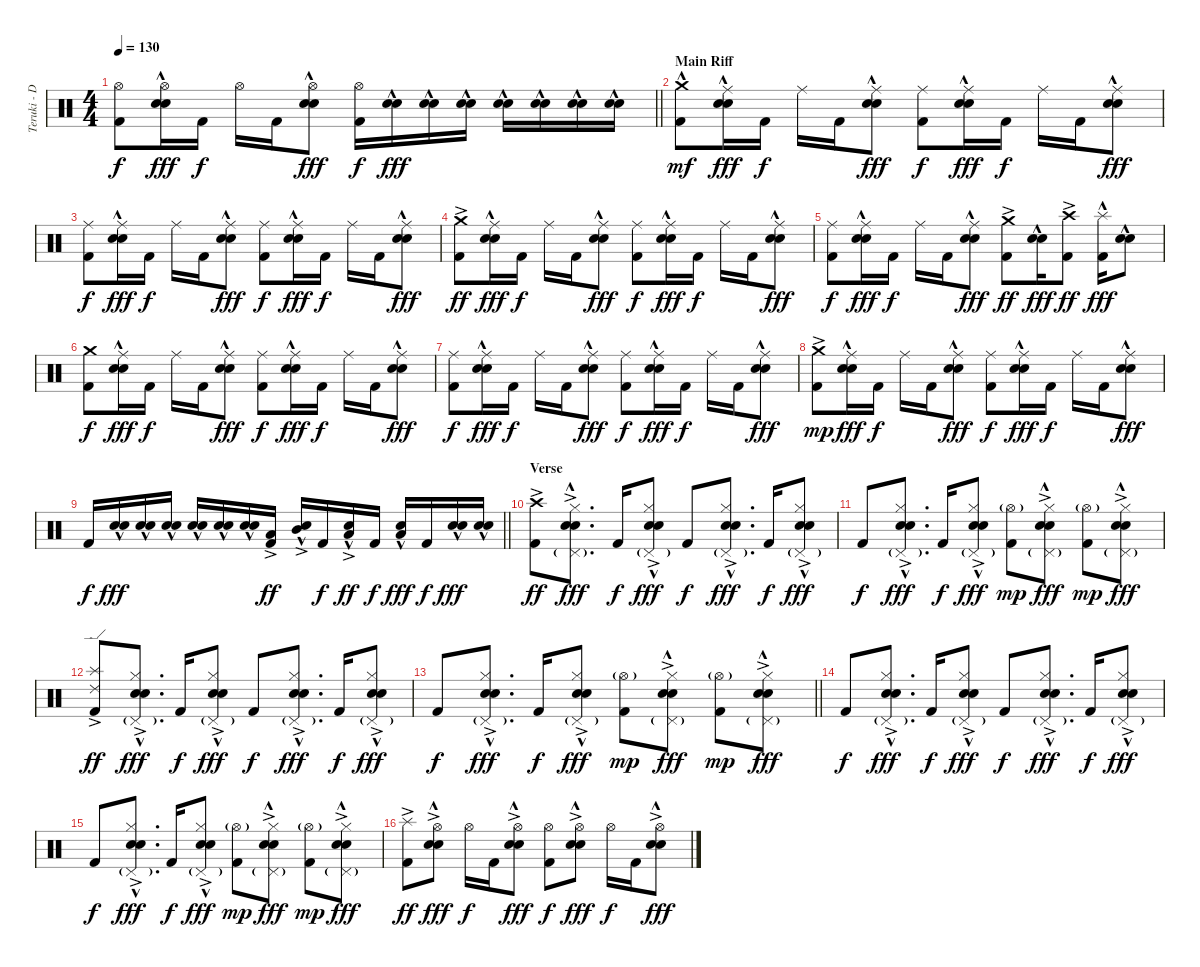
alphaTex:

\track ("Teruki - Drums" "Teruki - D") {instrument percussion}
\staff {score}
\articulation defaults
\ts (4 4)
\tempo 130
\clef neutral
\barLineRight lightlight
\ks c
("Hi-Hat (open)" "Kick (hit) 2").8{dy f} ("Hi-Hat (open)" "Electric Snare (hit)"{hac} "Snare (hit) 2").16{dy fff} "Kick (hit) 2".16{dy f} "Hi-Hat (open)".16 "Kick (hit) 2".16 ("Hi-Hat (open)" "Electric Snare (hit)"{hac} "Snare (hit) 2").8{dy fff} ("Hi-Hat (open)" "Kick (hit) 2").16{dy f} ("Electric Snare (hit)"{hac} "Snare (hit) 2").16{dy fff} ("Electric Snare (hit)"{hac} "Snare (hit) 2").16 ("Electric Snare (hit)"{hac} "Snare (hit) 2").16 ("Electric Snare (hit)"{hac} "Snare (hit) 2").16 ("Electric Snare (hit)"{hac} "Snare (hit) 2").16 ("Electric Snare (hit)"{hac} "Snare (hit) 2").16 ("Electric Snare (hit)"{hac} "Snare (hit) 2").16 |
\section ("" "Main Riff")
("Crash medium (hit)"{hac} "Kick (hit) 2").8{dy mf} ("Ride (middle)" "Electric Snare (hit)"{hac} "Snare (hit) 2").16{dy fff} "Kick (hit) 2".16{dy f} "Ride (middle)".16 "Kick (hit) 2".16 ("Ride (middle)" "Electric Snare (hit)"{hac} "Snare (hit) 2").8{dy fff} ("Ride (middle)" "Kick (hit) 2").8{dy f} ("Ride (middle)" "Electric Snare (hit)"{hac} "Snare (hit) 2").16{dy fff} "Kick (hit) 2".16{dy f} "Ride (middle)".16 "Kick (hit) 2".16 ("Ride (middle)" "Electric Snare (hit)"{hac} "Snare (hit) 2").8{dy fff} |
("Ride (middle)" "Kick (hit) 2").8{dy f} ("Ride (middle)" "Electric Snare (hit)"{hac} "Snare (hit) 2").16{dy fff} "Kick (hit) 2".16{dy f} "Ride (middle)".16 "Kick (hit) 2".16 ("Ride (middle)" "Electric Snare (hit)"{hac} "Snare (hit) 2").8{dy fff} ("Ride (middle)" "Kick (hit) 2").8{dy f} ("Ride (middle)" "Electric Snare (hit)"{hac} "Snare (hit) 2").16{dy fff} "Kick (hit) 2".16{dy f} "Ride (middle)".16 "Kick (hit) 2".16 ("Ride (middle)" "Electric Snare (hit)"{hac} "Snare (hit) 2").8{dy fff} |
("Crash medium (hit)"{ac} "Kick (hit) 2").8{dy ff} ("Ride (middle)" "Electric Snare (hit)"{hac} "Snare (hit) 2").16{dy fff} "Kick (hit) 2".16{dy f} "Ride (middle)".16 "Kick (hit) 2".16 ("Ride (middle)" "Electric Snare (hit)"{hac} "Snare (hit) 2").8{dy fff} ("Ride (middle)" "Kick (hit) 2").8{dy f} ("Ride (middle)" "Electric Snare (hit)"{hac} "Snare (hit) 2").16{dy fff} "Kick (hit) 2".16{dy f} "Ride (middle)".16 "Kick (hit) 2".16 ("Ride (middle)" "Electric Snare (hit)"{hac} "Snare (hit) 2").8{dy fff} |
("Ride (middle)" "Kick (hit) 2").8{dy f} ("Ride (middle)" "Electric Snare (hit)"{hac} "Snare (hit) 2").16{dy fff} "Kick (hit) 2".16{dy f} "Ride (middle)".16 "Kick (hit) 2".16 ("Ride (middle)" "Electric Snare (hit)"{hac} "Snare (hit) 2").8{dy fff} ("Crash medium (hit)"{ac} "Kick (hit) 2").8{dy ff} ("Electric Snare (hit)"{hac} "Snare (hit) 2").16{dy fff} ("Crash high (hit)"{ac} "Kick (hit) 2").8{dy ff} ("Splash (hit)"{hac} "Kick (hit) 2").16{dy fff} ("Electric Snare (hit)"{hac} "Snare (hit) 2").8 |
("Crash medium (hit)" "Kick (hit) 2").8{dy f} ("Ride (middle)" "Electric Snare (hit)"{hac} "Snare (hit) 2").16{dy fff} "Kick (hit) 2".16{dy f} "Ride (middle)".16 "Kick (hit) 2".16 ("Ride (middle)" "Electric Snare (hit)"{hac} "Snare (hit) 2").8{dy fff} ("Ride (middle)" "Kick (hit) 2").8{dy f} ("Ride (middle)" "Electric Snare (hit)"{hac} "Snare (hit) 2").16{dy fff} "Kick (hit) 2".16{dy f} "Ride (middle)".16 "Kick (hit) 2".16 ("Ride (middle)" "Electric Snare (hit)"{hac} "Snare (hit) 2").8{dy fff} |
("Ride (middle)" "Kick (hit) 2").8{dy f} ("Ride (middle)" "Electric Snare (hit)"{hac} "Snare (hit) 2").16{dy fff} "Kick (hit) 2".16{dy f} "Ride (middle)".16 "Kick (hit) 2".16 ("Ride (middle)" "Electric Snare (hit)"{hac} "Snare (hit) 2").8{dy fff} ("Ride (middle)" "Kick (hit) 2").8{dy f} ("Ride (middle)" "Electric Snare (hit)"{hac} "Snare (hit) 2").16{dy fff} "Kick (hit) 2".16{dy f} "Ride (middle)".16 "Kick (hit) 2".16 ("Ride (middle)" "Electric Snare (hit)"{hac} "Snare (hit) 2").8{dy fff} |
("Crash medium (hit)"{ac} "Kick (hit) 2").8{dy mp} ("Ride (middle)" "Electric Snare (hit)"{hac} "Snare (hit) 2").16{dy fff} "Kick (hit) 2".16{dy f} "Ride (middle)".16 "Kick (hit) 2".16 ("Ride (middle)" "Electric Snare (hit)"{hac} "Snare (hit) 2").8{dy fff} ("Ride (middle)" "Kick (hit) 2").8{dy f} ("Ride (middle)" "Electric Snare (hit)"{hac} "Snare (hit) 2").16{dy fff} "Kick (hit) 2".16{dy f} "Ride (middle)".16 "Kick (hit) 2".16 ("Ride (middle)" "Electric Snare (hit)"{hac} "Snare (hit) 2").8{dy fff} |
\barLineRight lightlight "Kick (hit) 2".16{dy f}
("Electric Snare (hit)"{hac} "Snare (hit) 2").16{dy fff} ("Electric Snare (hit)"{hac} "Snare (hit) 2").16 ("Electric Snare (hit)"{hac} "Snare (hit) 2").16 ("Electric Snare (hit)"{hac} "Snare (hit) 2").16 ("Electric Snare (hit)"{hac} "Snare (hit) 2").16 ("Electric Snare (hit)"{hac} "Snare (hit) 2").16 ("Low Tom (hit)"{ac} "Kick (hit) 2").16{dy ff} ("Electric Snare (hit)"{hac} "Mid Tom (hit)"{ac}).16 "Kick (hit) 2".16{dy f} ("Electric Snare (hit)"{hac} "Low Tom (hit)"{ac}).16{dy ff} "Kick (hit) 2".16{dy f} ("Electric Snare (hit)"{hac} "Low Tom (hit)").16{dy fff} "Kick (hit) 2".16{dy f} ("Electric Snare (hit)"{hac} "Snare (hit) 2").16{dy fff} ("Electric Snare (hit)"{hac} "Snare (hit) 2").16 |
\section ("" "Verse")
("Crash high (hit)"{ac} "Kick (hit) 2").8{dy ff} ("Hi-Hat (closed)"{ac} "Pedal Hi-Hat (hit)"{g} "Electric Snare (hit)"{hac} "Snare (hit) 2").8{d dy fff} "Kick (hit) 2".16{dy f} ("Hi-Hat (closed)"{ac} "Pedal Hi-Hat (hit)"{g} "Electric Snare (hit)"{hac} "Snare (hit) 2").8{dy fff} "Kick (hit) 2".8{dy f} ("Hi-Hat (closed)"{ac} "Pedal Hi-Hat (hit)"{g} "Electric Snare (hit)"{hac} "Snare (hit) 2").8{d dy fff} "Kick (hit) 2".16{dy f} ("Hi-Hat (closed)"{ac} "Pedal Hi-Hat (hit)"{g} "Electric Snare (hit)"{hac} "Snare (hit) 2").8{dy fff} |
"Kick (hit) 2".8{dy f} ("Hi-Hat (closed)"{ac} "Pedal Hi-Hat (hit)"{g} "Electric Snare (hit)"{hac} "Snare (hit) 2").8{d dy fff} "Kick (hit) 2".16{dy f} ("Hi-Hat (closed)"{ac} "Pedal Hi-Hat (hit)"{g} "Electric Snare (hit)"{hac} "Snare (hit) 2").8{dy fff} ("Hi-Hat (open)"{g} "Kick (hit) 2").8{dy mp} ("Hi-Hat (closed)"{ac} "Pedal Hi-Hat (hit)"{g} "Electric Snare (hit)"{hac} "Snare (hit) 2").8{dy fff} ("Hi-Hat (open)"{g} "Kick (hit) 2").8{dy mp} ("Hi-Hat (closed)"{ac} "Pedal Hi-Hat (hit)"{g} "Electric Snare (hit)"{hac} "Snare (hit) 2").8{dy fff} |
("Splash (hit)"{ac} "Ride (edge) 2" "Kick (hit) 2").8{dy ff} ("Hi-Hat (closed)"{ac} "Pedal Hi-Hat (hit)"{g} "Electric Snare (hit)"{hac} "Snare (hit) 2").8{d dy fff} "Kick (hit) 2".16{dy f} ("Hi-Hat (closed)"{ac} "Pedal Hi-Hat (hit)"{g} "Electric Snare (hit)"{hac} "Snare (hit) 2").8{dy fff} "Kick (hit) 2".8{dy f} ("Hi-Hat (closed)"{ac} "Pedal Hi-Hat (hit)"{g} "Electric Snare (hit)"{hac} "Snare (hit) 2").8{d dy fff} "Kick (hit) 2".16{dy f} ("Hi-Hat (closed)"{ac} "Pedal Hi-Hat (hit)"{g} "Electric Snare (hit)"{hac} "Snare (hit) 2").8{dy fff} |
\barLineRight lightlight "Kick (hit) 2".8{dy f}
("Hi-Hat (closed)"{ac} "Pedal Hi-Hat (hit)"{g} "Electric Snare (hit)"{hac} "Snare (hit) 2").8{d dy fff} "Kick (hit) 2".16{dy f} ("Hi-Hat (closed)"{ac} "Pedal Hi-Hat (hit)"{g} "Electric Snare (hit)"{hac} "Snare (hit) 2").8{dy fff} ("Hi-Hat (open)"{g} "Kick (hit) 2").8{dy mp} ("Hi-Hat (closed)"{ac} "Pedal Hi-Hat (hit)"{g} "Electric Snare (hit)"{hac} "Snare (hit) 2").8{dy fff} ("Hi-Hat (open)"{g} "Kick (hit) 2").8{dy mp} ("Hi-Hat (closed)"{ac} "Pedal Hi-Hat (hit)"{g} "Electric Snare (hit)"{hac} "Snare (hit) 2").8{dy fff} |
"Kick (hit) 2".8{dy f} ("Hi-Hat (closed)"{ac} "Pedal Hi-Hat (hit)"{g} "Electric Snare (hit)"{hac} "Snare (hit) 2").8{d dy fff} "Kick (hit) 2".16{dy f} ("Hi-Hat (closed)"{ac} "Pedal Hi-Hat (hit)"{g} "Electric Snare (hit)"{hac} "Snare (hit) 2").8{dy fff} "Kick (hit) 2".8{dy f} ("Hi-Hat (closed)"{ac} "Pedal Hi-Hat (hit)"{g} "Electric Snare (hit)"{hac} "Snare (hit) 2").8{d dy fff} "Kick (hit) 2".16{dy f} ("Hi-Hat (closed)"{ac} "Pedal Hi-Hat (hit)"{g} "Electric Snare (hit)"{hac} "Snare (hit) 2").8{dy fff} |
"Kick (hit) 2".8{dy f} ("Hi-Hat (closed)"{ac} "Pedal Hi-Hat (hit)"{g} "Electric Snare (hit)"{hac} "Snare (hit) 2").8{d dy fff} "Kick (hit) 2".16{dy f} ("Hi-Hat (closed)"{ac} "Pedal Hi-Hat (hit)"{g} "Electric Snare (hit)"{hac} "Snare (hit) 2").8{dy fff} ("Hi-Hat (open)"{g} "Kick (hit) 2").8{dy mp} ("Hi-Hat (closed)"{ac} "Pedal Hi-Hat (hit)"{g} "Electric Snare (hit)"{hac} "Snare (hit) 2").8{dy fff} ("Hi-Hat (open)"{g} "Kick (hit) 2").8{dy mp} ("Hi-Hat (closed)"{ac} "Pedal Hi-Hat (hit)"{g} "Electric Snare (hit)"{hac} "Snare (hit) 2").8{dy fff} |
("Splash (hit)"{ac} "Kick (hit) 2").8{dy ff} ("Hi-Hat (open)"{ac} "Electric Snare (hit)"{hac} "Snare (hit) 2").8{dy fff} "Hi-Hat (open)".16{dy f} "Kick (hit) 2".16 ("Hi-Hat (open)"{ac} "Electric Snare (hit)"{hac} "Snare (hit) 2").8{dy fff} ("Hi-Hat (open)" "Kick (hit) 2").8{dy f} ("Hi-Hat (open)"{ac} "Electric Snare (hit)"{hac} "Snare (hit) 2").8{dy fff} "Hi-Hat (open)".16{dy f} "Kick (hit) 2".16 ("Hi-Hat (open)"{ac} "Electric Snare (hit)"{hac} "Snare (hit) 2").8{dy fff}
